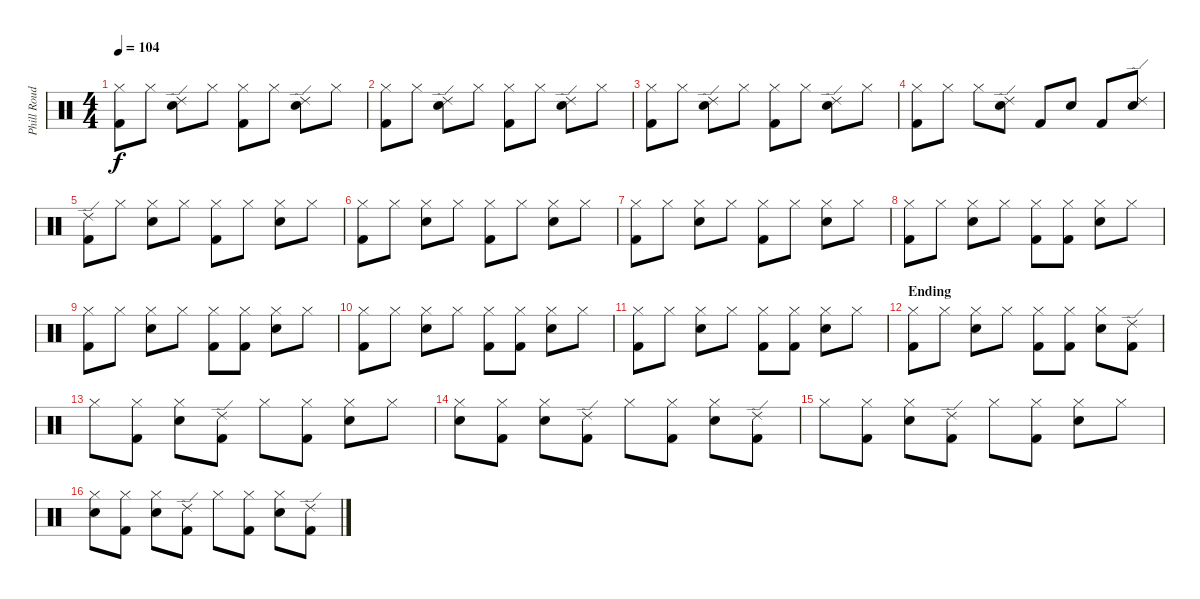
\track ("Phill Roud" "Phill Roud") {instrument percussion}
\staff {score}
\articulation defaults
\ts (4 4)
\tempo 104
\clef neutral
\ks c
("Hi-Hat (closed)" "Kick (hit) 2").8{dy f} "Hi-Hat (closed)".8 ("Snare (hit) 2" "Ride (edge) 2").8 "Hi-Hat (closed)".8 ("Hi-Hat (closed)" "Kick (hit) 2").8 "Hi-Hat (closed)".8 ("Snare (hit) 2" "Ride (edge) 2").8 "Hi-Hat (closed)".8 |
("Hi-Hat (closed)" "Kick (hit) 2").8 "Hi-Hat (closed)".8 ("Snare (hit) 2" "Ride (edge) 2").8 "Hi-Hat (closed)".8 ("Hi-Hat (closed)" "Kick (hit) 2").8 "Hi-Hat (closed)".8 ("Snare (hit) 2" "Ride (edge) 2").8 "Hi-Hat (closed)".8 |
("Hi-Hat (closed)" "Kick (hit) 2").8 "Hi-Hat (closed)".8 ("Snare (hit) 2" "Ride (edge) 2").8 "Hi-Hat (closed)".8 ("Hi-Hat (closed)" "Kick (hit) 2").8 "Hi-Hat (closed)".8 ("Snare (hit) 2" "Ride (edge) 2").8 "Hi-Hat (closed)".8 |
("Hi-Hat (closed)" "Kick (hit) 2").8 "Hi-Hat (closed)".8 "Hi-Hat (closed)".8 ("Snare (hit) 2" "Ride (edge) 2").8 "Kick (hit) 2".8 "Snare (hit) 2".8 "Kick (hit) 2".8 ("Snare (hit) 2" "Ride (edge) 2").8 |
("Kick (hit) 2" "Ride (edge) 2").8 "Hi-Hat (closed)".8 ("Hi-Hat (closed)" "Snare (hit) 2").8 "Hi-Hat (closed)".8 ("Hi-Hat (closed)" "Kick (hit) 2").8 "Hi-Hat (closed)".8 ("Hi-Hat (closed)" "Snare (hit) 2").8 "Hi-Hat (closed)".8 |
("Hi-Hat (closed)" "Kick (hit) 2").8 "Hi-Hat (closed)".8 ("Hi-Hat (closed)" "Snare (hit) 2").8 "Hi-Hat (closed)".8 ("Hi-Hat (closed)" "Kick (hit) 2").8 "Hi-Hat (closed)".8 ("Hi-Hat (closed)" "Snare (hit) 2").8 "Hi-Hat (closed)".8 |
("Hi-Hat (closed)" "Kick (hit) 2").8 "Hi-Hat (closed)".8 ("Hi-Hat (closed)" "Snare (hit) 2").8 "Hi-Hat (closed)".8 ("Hi-Hat (closed)" "Kick (hit) 2").8 "Hi-Hat (closed)".8 ("Hi-Hat (closed)" "Snare (hit) 2").8 "Hi-Hat (closed)".8 |
("Hi-Hat (closed)" "Kick (hit) 2").8 "Hi-Hat (closed)".8 ("Hi-Hat (closed)" "Snare (hit) 2").8 "Hi-Hat (closed)".8 ("Hi-Hat (closed)" "Kick (hit) 2").8 ("Hi-Hat (closed)" "Kick (hit) 2").8 ("Hi-Hat (closed)" "Snare (hit) 2").8 "Hi-Hat (closed)".8 |
("Hi-Hat (closed)" "Kick (hit) 2").8 "Hi-Hat (closed)".8 ("Hi-Hat (closed)" "Snare (hit) 2").8 "Hi-Hat (closed)".8 ("Hi-Hat (closed)" "Kick (hit) 2").8 ("Hi-Hat (closed)" "Kick (hit) 2").8 ("Hi-Hat (closed)" "Snare (hit) 2").8 "Hi-Hat (closed)".8 |
("Hi-Hat (closed)" "Kick (hit) 2").8 "Hi-Hat (closed)".8 ("Hi-Hat (closed)" "Snare (hit) 2").8 "Hi-Hat (closed)".8 ("Hi-Hat (closed)" "Kick (hit) 2").8 ("Hi-Hat (closed)" "Kick (hit) 2").8 ("Hi-Hat (closed)" "Snare (hit) 2").8 "Hi-Hat (closed)".8 |
("Hi-Hat (closed)" "Kick (hit) 2").8 "Hi-Hat (closed)".8 ("Hi-Hat (closed)" "Snare (hit) 2").8 "Hi-Hat (closed)".8 ("Hi-Hat (closed)" "Kick (hit) 2").8 ("Hi-Hat (closed)" "Kick (hit) 2").8 ("Hi-Hat (closed)" "Snare (hit) 2").8 "Hi-Hat (closed)".8 |
\section ("" "Ending")
("Hi-Hat (closed)" "Kick (hit) 2").8 "Hi-Hat (closed)".8 ("Hi-Hat (closed)" "Snare (hit) 2").8 "Hi-Hat (closed)".8 ("Hi-Hat (closed)" "Kick (hit) 2").8 ("Hi-Hat (closed)" "Kick (hit) 2").8 ("Hi-Hat (closed)" "Snare (hit) 2").8 ("Kick (hit) 2" "Ride (edge) 2").8 |
"Hi-Hat (closed)".8 ("Hi-Hat (closed)" "Kick (hit) 2").8 ("Hi-Hat (closed)" "Snare (hit) 2").8 ("Kick (hit) 2" "Ride (edge) 2").8 "Hi-Hat (closed)".8 ("Hi-Hat (closed)" "Kick (hit) 2").8 ("Hi-Hat (closed)" "Snare (hit) 2").8 "Hi-Hat (closed)".8 |
("Hi-Hat (closed)" "Snare (hit) 2").8 ("Hi-Hat (closed)" "Kick (hit) 2").8 ("Hi-Hat (closed)" "Snare (hit) 2").8 ("Kick (hit) 2" "Ride (edge) 2").8 "Hi-Hat (closed)".8 ("Hi-Hat (closed)" "Kick (hit) 2").8 ("Hi-Hat (closed)" "Snare (hit) 2").8 ("Kick (hit) 2" "Ride (edge) 2").8 |
"Hi-Hat (closed)".8 ("Hi-Hat (closed)" "Kick (hit) 2").8 ("Hi-Hat (closed)" "Snare (hit) 2").8 ("Kick (hit) 2" "Ride (edge) 2").8 "Hi-Hat (closed)".8 ("Hi-Hat (closed)" "Kick (hit) 2").8 ("Hi-Hat (closed)" "Snare (hit) 2").8 "Hi-Hat (closed)".8 |
("Hi-Hat (closed)" "Snare (hit) 2").8 ("Hi-Hat (closed)" "Kick (hit) 2").8 ("Hi-Hat (closed)" "Snare (hit) 2").8 ("Kick (hit) 2" "Ride (edge) 2").8 "Hi-Hat (closed)".8 ("Hi-Hat (closed)" "Kick (hit) 2").8 ("Hi-Hat (closed)" "Snare (hit) 2").8 ("Kick (hit) 2" "Ride (edge) 2").8
